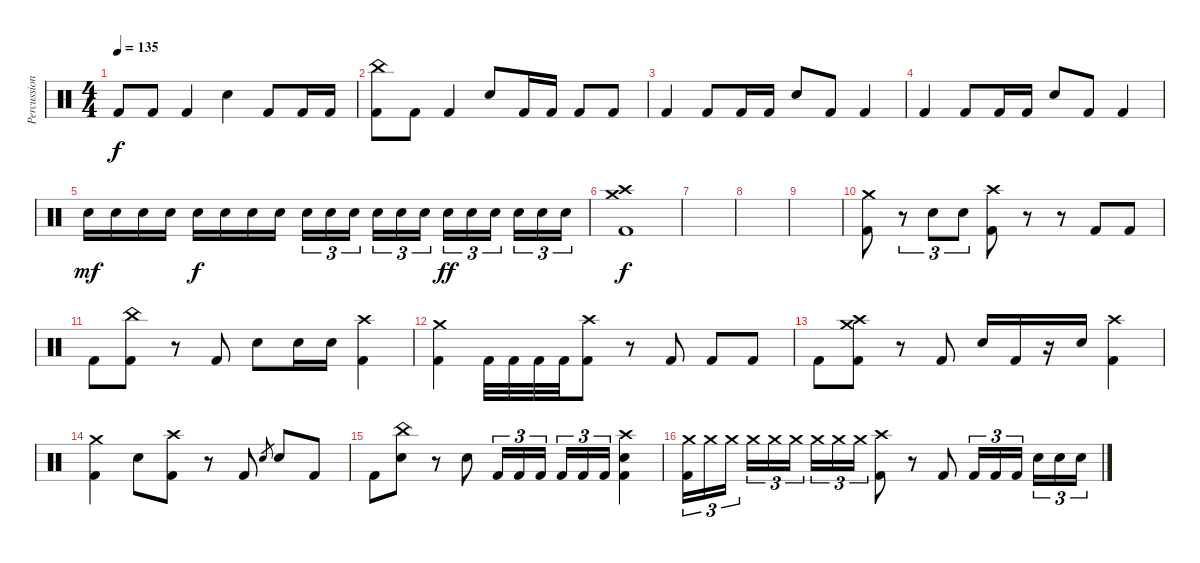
\track ("Percussion" "Percussion") {instrument percussion}
\staff {score}
\articulation defaults
\ts (4 4)
\tempo 135
\clef neutral
\ks c "Kick (hit) 2".8{dy f} "Kick (hit) 2".8 "Kick (hit) 2".4 "Electric Snare (hit)".4 "Kick (hit) 2".8 "Kick (hit) 2".16 "Kick (hit) 2".16
|
("China (hit)" "Kick (hit) 2").8 "Kick (hit) 2".8 "Kick (hit) 2".4 "Electric Snare (hit)".8 "Kick (hit) 2".16 "Kick (hit) 2".16 "Kick (hit) 2".8 "Kick (hit) 2".8 |
"Kick (hit) 2".4 "Kick (hit) 2".8 "Kick (hit) 2".16 "Kick (hit) 2".16 "Electric Snare (hit)".8 "Kick (hit) 2".8 "Kick (hit) 2".4 |
"Kick (hit) 2".4 "Kick (hit) 2".8 "Kick (hit) 2".16 "Kick (hit) 2".16 "Electric Snare (hit)".8 "Kick (hit) 2".8 "Kick (hit) 2".4 |
"Electric Snare (hit)".16{dy mf} "Electric Snare (hit)".16 "Electric Snare (hit)".16 "Electric Snare (hit)".16 "Electric Snare (hit)".16{dy f} "Electric Snare (hit)".16 "Electric Snare (hit)".16 "Electric Snare (hit)".16 "Electric Snare (hit)".16{tu (3 2)} "Electric Snare (hit)".16{tu (3 2)} "Electric Snare (hit)".16{tu (3 2)} "Electric Snare (hit)".16{tu (3 2)} "Electric Snare (hit)".16{tu (3 2)} "Electric Snare (hit)".16{tu (3 2)} "Electric Snare (hit)".16{tu (3 2) dy ff} "Electric Snare (hit)".16{tu (3 2)} "Electric Snare (hit)".16{tu (3 2)} "Electric Snare (hit)".16{tu (3 2)} "Electric Snare (hit)".16{tu (3 2)} "Electric Snare (hit)".16{tu (3 2)} |
("Crash high (hit)" "Crash medium (hit)" "Kick (hit) 2").1{dy f} |
|
|
|
("Crash medium (hit)" "Kick (hit) 2").8 r.8{tu (3 2)} "Electric Snare (hit)".8{tu (3 2)} "Electric Snare (hit)".8{tu (3 2)} ("Crash high (hit)" "Kick (hit) 2").8 r.8 r.8 "Kick (hit) 2".8 "Kick (hit) 2".8 |
"Kick (hit) 2".8 ("China (hit)" "Kick (hit) 2").8 r.8 "Kick (hit) 2".8 "Electric Snare (hit)".8 "Electric Snare (hit)".16 "Electric Snare (hit)".16 ("Crash high (hit)" "Kick (hit) 2").4 |
("Crash medium (hit)" "Kick (hit) 2").4 "Kick (hit) 2".32 "Kick (hit) 2".32 "Kick (hit) 2".32 "Kick (hit) 2".32 ("Crash high (hit)" "Kick (hit) 2").8 r.8 "Kick (hit) 2".8 "Kick (hit) 2".8 "Kick (hit) 2".8 |
"Kick (hit) 2".8 ("Crash high (hit)" "Crash medium (hit)" "Kick (hit) 2").8 r.8 "Kick (hit) 2".8 "Electric Snare (hit)".16 "Kick (hit) 2".16 r.16 "Electric Snare (hit)".16 ("Crash high (hit)" "Kick (hit) 2").4 |
("Crash medium (hit)" "Kick (hit) 2").4 "Electric Snare (hit)".8 ("Crash high (hit)" "Kick (hit) 2").8 r.8 "Kick (hit) 2".8 "Electric Snare (hit)".8{gr} "Electric Snare (hit)".8 "Kick (hit) 2".8 |
"Kick (hit) 2".8 ("China (hit)" "Electric Snare (hit)").8 r.8 "Electric Snare (hit)".8 "Kick (hit) 2".16{tu (3 2)} "Kick (hit) 2".16{tu (3 2)} "Kick (hit) 2".16{tu (3 2)} "Kick (hit) 2".16{tu (3 2)} "Kick (hit) 2".16{tu (3 2)} "Kick (hit) 2".16{tu (3 2)} ("Crash high (hit)" "Electric Snare (hit)" "Kick (hit) 2").4 |
("Crash medium (hit)" "Kick (hit) 2").16{tu (3 2)} "Crash medium (hit)".16{tu (3 2)} "Crash medium (hit)".16{tu (3 2)} "Crash medium (hit)".16{tu (3 2)} "Crash medium (hit)".16{tu (3 2)} "Crash medium (hit)".16{tu (3 2)} "Crash medium (hit)".16{tu (3 2)} "Crash medium (hit)".16{tu (3 2)} "Crash medium (hit)".16{tu (3 2)} ("Crash high (hit)" "Kick (hit) 2").8 r.8 "Kick (hit) 2".8 "Kick (hit) 2".16{tu (3 2)} "Kick (hit) 2".16{tu (3 2)} "Kick (hit) 2".16{tu (3 2)} "Electric Snare (hit)".16{tu (3 2)} "Electric Snare (hit)".16{tu (3 2)} "Electric Snare (hit)".16{tu (3 2)}
